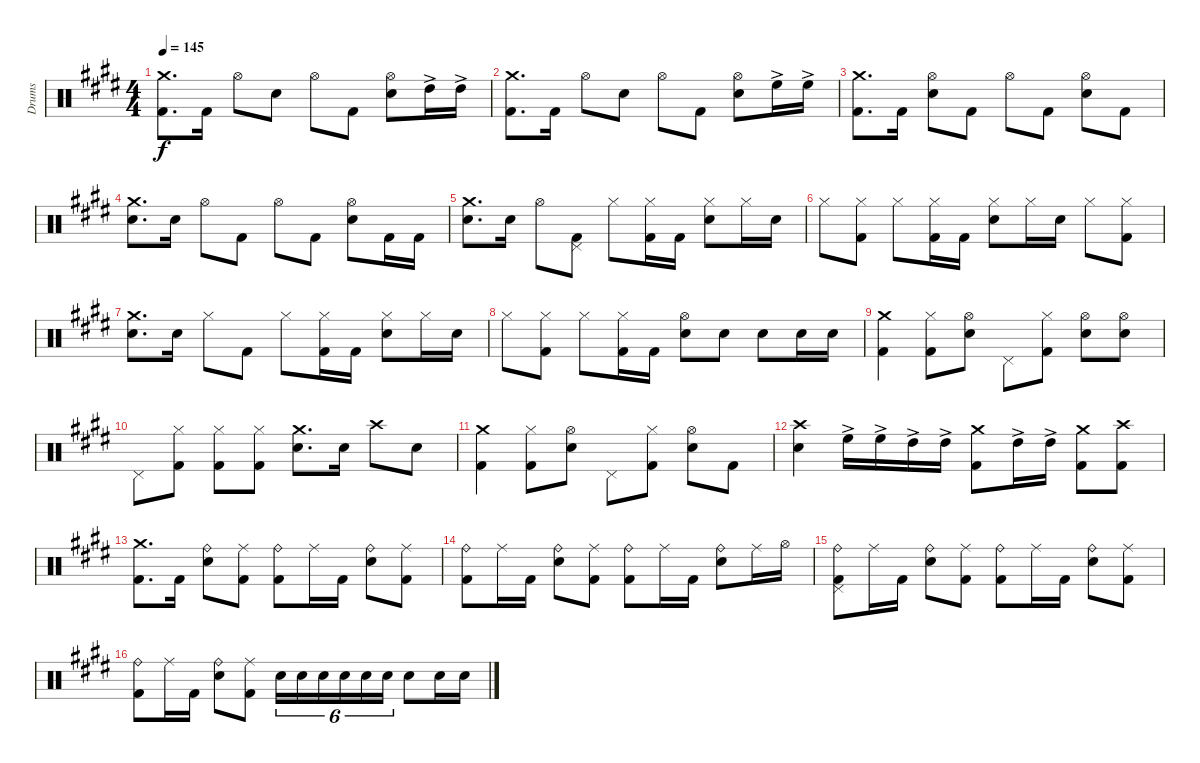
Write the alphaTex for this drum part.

\defaultSystemsLayout 4
\bracketExtendMode groupsimilarinstruments
\otherSystemsTrackNameOrientation horizontal
\track ("Drumkit" "Drums") {multiBarRest instrument percussion}
\staff {score}
\articulation defaults
\ts (4 4)
\tempo 145
\clef neutral
\ks e
("Kick (hit) 2"{acc forcenatural} "Crash medium (hit)"{acc forcenatural}).8{d dy f} "Kick (hit) 2"{acc forcenatural}.16 "Hi-Hat (open)"{acc forcenatural}.8 "Snare (hit) 2"{acc forcenatural}.8 "Hi-Hat (open)"{acc forcenatural}.8 "Kick (hit) 2"{acc forcenatural}.8 ("Snare (hit) 2"{acc forcenatural} "Hi-Hat (open)"{acc forcenatural}).8 "High Tom (hit)"{ac acc forcenatural}.16 "High Tom (hit)"{ac acc forcenatural}.16 |
("Kick (hit) 2"{acc forcenatural} "Crash medium (hit)"{acc forcenatural}).8{d} "Kick (hit) 2"{acc forcenatural}.16 "Hi-Hat (open)"{acc forcenatural}.8 "Snare (hit) 2"{acc forcenatural}.8 "Hi-Hat (open)"{acc forcenatural}.8 "Kick (hit) 2"{acc forcenatural}.8 ("Snare (hit) 2"{acc forcenatural} "Hi-Hat (open)"{acc forcenatural}).8 "High Floor Tom (hit)"{ac acc forcenatural}.16 "High Floor Tom (hit)"{ac acc forcenatural}.16 |
("Kick (hit) 2"{acc forcenatural} "Crash medium (hit)"{acc forcenatural}).8{d} "Kick (hit) 2"{acc forcenatural}.16 ("Snare (hit) 2"{acc forcenatural} "Hi-Hat (open)"{acc forcenatural}).8 "Kick (hit) 2"{acc forcenatural}.8 "Hi-Hat (open)"{acc forcenatural}.8 "Kick (hit) 2"{acc forcenatural}.8 ("Snare (hit) 2"{acc forcenatural} "Hi-Hat (open)"{acc forcenatural}).8 "Kick (hit) 2"{acc forcenatural}.8 |
("Crash medium (hit)"{acc forcenatural} "Snare (hit) 2"{acc forcenatural}).8{d} "Snare (hit) 2"{acc forcenatural}.16 "Hi-Hat (open)"{acc forcenatural}.8 "Kick (hit) 2"{acc forcenatural}.8 "Hi-Hat (open)"{acc forcenatural}.8 "Kick (hit) 2"{acc forcenatural}.8 ("Snare (hit) 2"{acc forcenatural} "Hi-Hat (open)"{acc forcenatural}).8 "Kick (hit) 2"{acc forcenatural}.16 "Kick (hit) 2"{acc forcenatural}.16 |
("Snare (hit) 2"{acc forcenatural} "Crash medium (hit)"{acc forcenatural}).8{d} "Snare (hit) 2"{acc forcenatural}.16 "Hi-Hat (open)"{acc forcenatural}.8 ("Pedal Hi-Hat (hit)"{acc forcenatural} "Kick (hit) 2"{acc forcenatural}).8 "Hi-Hat (closed)"{acc forcenatural}.8 ("Hi-Hat (closed)"{acc forcenatural} "Kick (hit) 2"{acc forcenatural}).16 "Kick (hit) 2"{acc forcenatural}.16 ("Snare (hit) 2"{acc forcenatural} "Hi-Hat (closed)"{acc forcenatural}).8 "Hi-Hat (closed)"{acc forcenatural}.16 "Snare (hit) 2"{acc forcenatural}.16 |
"Hi-Hat (closed)"{acc forcenatural}.8 ("Hi-Hat (closed)"{acc forcenatural} "Kick (hit) 2"{acc forcenatural}).8 "Hi-Hat (closed)"{acc forcenatural}.8 ("Hi-Hat (closed)"{acc forcenatural} "Kick (hit) 2"{acc forcenatural}).16 "Kick (hit) 2"{acc forcenatural}.16 ("Snare (hit) 2"{acc forcenatural} "Hi-Hat (closed)"{acc forcenatural}).8 "Hi-Hat (closed)"{acc forcenatural}.16 "Snare (hit) 2"{acc forcenatural}.16 "Hi-Hat (closed)"{acc forcenatural}.8 ("Hi-Hat (closed)"{acc forcenatural} "Kick (hit) 2"{acc forcenatural}).8 |
("Snare (hit) 2"{acc forcenatural} "Crash medium (hit)"{acc forcenatural}).8{d} "Snare (hit) 2"{acc forcenatural}.16 "Hi-Hat (closed)"{acc forcenatural}.8 "Kick (hit) 2"{acc forcenatural}.8 "Hi-Hat (closed)"{acc forcenatural}.8 ("Hi-Hat (closed)"{acc forcenatural} "Kick (hit) 2"{acc forcenatural}).16 "Kick (hit) 2"{acc forcenatural}.16 ("Snare (hit) 2"{acc forcenatural} "Hi-Hat (closed)"{acc forcenatural}).8 "Hi-Hat (closed)"{acc forcenatural}.16 "Snare (hit) 2"{acc forcenatural}.16 |
"Hi-Hat (closed)"{acc forcenatural}.8 ("Hi-Hat (closed)"{acc forcenatural} "Kick (hit) 2"{acc forcenatural}).8 "Hi-Hat (closed)"{acc forcenatural}.8 ("Hi-Hat (closed)"{acc forcenatural} "Kick (hit) 2"{acc forcenatural}).16 "Kick (hit) 2"{acc forcenatural}.16 ("Snare (hit) 2"{acc forcenatural} "Hi-Hat (open)"{acc forcenatural}).8 "Snare (hit) 2"{acc forcenatural}.8 "Snare (hit) 2"{acc forcenatural}.8 "Snare (hit) 2"{acc forcenatural}.16 "Snare (hit) 2"{acc forcenatural}.16 |
("Crash medium (hit)"{acc forcenatural} "Kick (hit) 2"{acc forcenatural}).4 ("Hi-Hat (closed)"{acc forcenatural} "Kick (hit) 2"{acc forcenatural}).8 ("Hi-Hat (open)"{acc forcenatural} "Snare (hit) 2"{acc forcenatural}).8 "Pedal Hi-Hat (hit)"{acc forcenatural}.8 ("Kick (hit) 2"{acc forcenatural} "Hi-Hat (closed)"{acc forcenatural}).8 ("Snare (hit) 2"{acc forcenatural} "Hi-Hat (open)"{acc forcenatural}).8 ("Snare (hit) 2"{acc forcenatural} "Hi-Hat (open)"{acc forcenatural}).8 |
"Pedal Hi-Hat (hit)"{acc forcenatural}.8 ("Kick (hit) 2"{acc forcenatural} "Hi-Hat (closed)"{acc forcenatural}).8 ("Kick (hit) 2"{acc forcenatural} "Hi-Hat (closed)"{acc forcenatural}).8 ("Kick (hit) 2"{acc forcenatural} "Hi-Hat (closed)"{acc forcenatural}).8 ("Snare (hit) 2"{acc forcenatural} "Crash medium (hit)"{acc forcenatural}).8{d} "Snare (hit) 2"{acc forcenatural}.16 "Crash high (hit)"{acc forcenatural}.8 "Snare (hit) 2"{acc forcenatural}.8 |
("Kick (hit) 2"{acc forcenatural} "Crash medium (hit)"{acc forcenatural}).4 ("Kick (hit) 2"{acc forcenatural} "Hi-Hat (closed)"{acc forcenatural}).8 ("Snare (hit) 2"{acc forcenatural} "Hi-Hat (open)"{acc forcenatural}).8 "Pedal Hi-Hat (hit)"{acc forcenatural}.8 ("Kick (hit) 2"{acc forcenatural} "Hi-Hat (closed)"{acc forcenatural}).8 ("Snare (hit) 2"{acc forcenatural} "Hi-Hat (open)"{acc forcenatural}).8 "Kick (hit) 2"{acc forcenatural}.8 |
("Crash high (hit)"{acc forcenatural} "Snare (hit) 2"{acc forcenatural}).4 "High Floor Tom (hit)"{ac acc forcenatural}.16 "High Floor Tom (hit)"{ac acc forcenatural}.16 "High Tom (hit)"{ac acc forcenatural}.16 "High Tom (hit)"{ac acc forcenatural}.16 ("Crash medium (hit)"{acc forcenatural} "Kick (hit) 2"{acc forcenatural}).8 "High Tom (hit)"{ac acc forcenatural}.16 "High Tom (hit)"{ac acc forcenatural}.16 ("Kick (hit) 2"{acc forcenatural} "Crash medium (hit)"{acc forcenatural}).8 ("Kick (hit) 2"{acc forcenatural} "Crash high (hit)"{acc forcenatural}).8 |
("Crash medium (hit)"{acc forcenatural} "Kick (hit) 2"{acc forcenatural}).8{d} "Kick (hit) 2"{acc forcenatural}.16 ("Snare (hit) 2"{acc forcenatural} "Ride (bell)"{acc forcenatural}).8 ("Kick (hit) 2"{acc forcenatural} "Ride (middle)"{acc forcenatural}).8 ("Kick (hit) 2"{acc forcenatural} "Ride (bell)"{acc forcenatural}).8 "Ride (middle)"{acc forcenatural}.16 "Kick (hit) 2"{acc forcenatural}.16 ("Snare (hit) 2"{acc forcenatural} "Ride (bell)"{acc forcenatural}).8 ("Kick (hit) 2"{acc forcenatural} "Ride (middle)"{acc forcenatural}).8 |
("Ride (bell)"{acc forcenatural} "Kick (hit) 2"{acc forcenatural}).8 "Ride (middle)"{acc forcenatural}.16 "Kick (hit) 2"{acc forcenatural}.16 ("Snare (hit) 2"{acc forcenatural} "Ride (bell)"{acc forcenatural}).8 ("Kick (hit) 2"{acc forcenatural} "Ride (middle)"{acc forcenatural}).8 ("Ride (bell)"{acc forcenatural} "Kick (hit) 2"{acc forcenatural}).8 "Ride (middle)"{acc forcenatural}.16 "Kick (hit) 2"{acc forcenatural}.16 ("Snare (hit) 2"{acc forcenatural} "Ride (bell)"{acc forcenatural}).8 "Ride (middle)"{acc forcenatural}.16 "Hi-Hat (open)"{acc forcenatural}.16 |
("Kick (hit) 2"{acc forcenatural} "Ride (bell)"{acc forcenatural} "Pedal Hi-Hat (hit)"{acc forcenatural}).8 "Ride (middle)"{acc forcenatural}.16 "Kick (hit) 2"{acc forcenatural}.16 ("Snare (hit) 2"{acc forcenatural} "Ride (bell)"{acc forcenatural}).8 ("Kick (hit) 2"{acc forcenatural} "Ride (middle)"{acc forcenatural}).8 ("Kick (hit) 2"{acc forcenatural} "Ride (bell)"{acc forcenatural}).8 "Ride (middle)"{acc forcenatural}.16 "Kick (hit) 2"{acc forcenatural}.16 ("Snare (hit) 2"{acc forcenatural} "Ride (bell)"{acc forcenatural}).8 ("Kick (hit) 2"{acc forcenatural} "Ride (middle)"{acc forcenatural}).8 |
("Kick (hit) 2"{acc forcenatural} "Ride (bell)"{acc forcenatural}).8 "Ride (middle)"{acc forcenatural}.16 "Kick (hit) 2"{acc forcenatural}.16 ("Snare (hit) 2"{acc forcenatural} "Ride (bell)"{acc forcenatural}).8 ("Kick (hit) 2"{acc forcenatural} "Ride (middle)"{acc forcenatural}).8 "Snare (hit) 2"{acc forcenatural}.16{tu (6 4)} "Snare (hit) 2"{acc forcenatural}.16{tu (6 4)} "Snare (hit) 2"{acc forcenatural}.16{tu (6 4)} "Snare (hit) 2"{acc forcenatural}.16{tu (6 4)} "Snare (hit) 2"{acc forcenatural}.16{tu (6 4)} "Snare (hit) 2"{acc forcenatural}.16{tu (6 4)} "Snare (hit) 2"{acc forcenatural}.8 "Snare (hit) 2"{acc forcenatural}.16 "Snare (hit) 2"{acc forcenatural}.16
